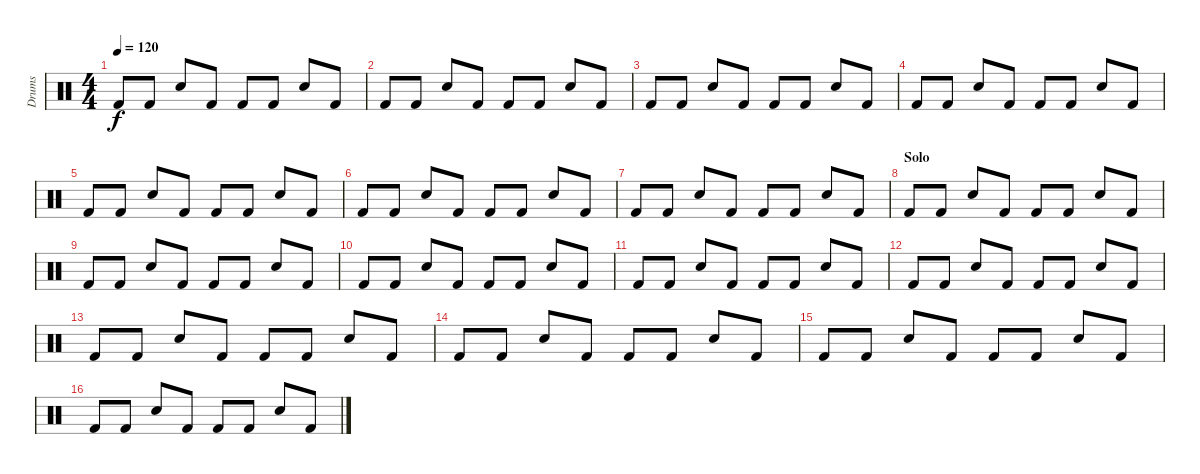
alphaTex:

\track ("Drums" "Drums") {instrument percussion}
\staff {score}
\articulation defaults
\ts (4 4)
\tempo 120
\clef neutral
\ks c "Kick (hit) 2".8{dy f} "Kick (hit) 2".8 "Snare (hit) 2".8 "Kick (hit) 2".8 "Kick (hit) 2".8 "Kick (hit) 2".8 "Snare (hit) 2".8 "Kick (hit) 2".8
|
"Kick (hit) 2".8 "Kick (hit) 2".8 "Snare (hit) 2".8 "Kick (hit) 2".8 "Kick (hit) 2".8 "Kick (hit) 2".8 "Snare (hit) 2".8 "Kick (hit) 2".8 |
"Kick (hit) 2".8 "Kick (hit) 2".8 "Snare (hit) 2".8 "Kick (hit) 2".8 "Kick (hit) 2".8 "Kick (hit) 2".8 "Snare (hit) 2".8 "Kick (hit) 2".8 |
"Kick (hit) 2".8 "Kick (hit) 2".8 "Snare (hit) 2".8 "Kick (hit) 2".8 "Kick (hit) 2".8 "Kick (hit) 2".8 "Snare (hit) 2".8 "Kick (hit) 2".8 |
"Kick (hit) 2".8 "Kick (hit) 2".8 "Snare (hit) 2".8 "Kick (hit) 2".8 "Kick (hit) 2".8 "Kick (hit) 2".8 "Snare (hit) 2".8 "Kick (hit) 2".8 |
"Kick (hit) 2".8 "Kick (hit) 2".8 "Snare (hit) 2".8 "Kick (hit) 2".8 "Kick (hit) 2".8 "Kick (hit) 2".8 "Snare (hit) 2".8 "Kick (hit) 2".8 |
"Kick (hit) 2".8 "Kick (hit) 2".8 "Snare (hit) 2".8 "Kick (hit) 2".8 "Kick (hit) 2".8 "Kick (hit) 2".8 "Snare (hit) 2".8 "Kick (hit) 2".8 |
\section ("" "Solo")
"Kick (hit) 2".8 "Kick (hit) 2".8 "Snare (hit) 2".8 "Kick (hit) 2".8 "Kick (hit) 2".8 "Kick (hit) 2".8 "Snare (hit) 2".8 "Kick (hit) 2".8 |
"Kick (hit) 2".8 "Kick (hit) 2".8 "Snare (hit) 2".8 "Kick (hit) 2".8 "Kick (hit) 2".8 "Kick (hit) 2".8 "Snare (hit) 2".8 "Kick (hit) 2".8 |
"Kick (hit) 2".8 "Kick (hit) 2".8 "Snare (hit) 2".8 "Kick (hit) 2".8 "Kick (hit) 2".8 "Kick (hit) 2".8 "Snare (hit) 2".8 "Kick (hit) 2".8 |
"Kick (hit) 2".8 "Kick (hit) 2".8 "Snare (hit) 2".8 "Kick (hit) 2".8 "Kick (hit) 2".8 "Kick (hit) 2".8 "Snare (hit) 2".8 "Kick (hit) 2".8 |
"Kick (hit) 2".8 "Kick (hit) 2".8 "Snare (hit) 2".8 "Kick (hit) 2".8 "Kick (hit) 2".8 "Kick (hit) 2".8 "Snare (hit) 2".8 "Kick (hit) 2".8 |
"Kick (hit) 2".8 "Kick (hit) 2".8 "Snare (hit) 2".8 "Kick (hit) 2".8 "Kick (hit) 2".8 "Kick (hit) 2".8 "Snare (hit) 2".8 "Kick (hit) 2".8 |
"Kick (hit) 2".8 "Kick (hit) 2".8 "Snare (hit) 2".8 "Kick (hit) 2".8 "Kick (hit) 2".8 "Kick (hit) 2".8 "Snare (hit) 2".8 "Kick (hit) 2".8 |
"Kick (hit) 2".8 "Kick (hit) 2".8 "Snare (hit) 2".8 "Kick (hit) 2".8 "Kick (hit) 2".8 "Kick (hit) 2".8 "Snare (hit) 2".8 "Kick (hit) 2".8 |
"Kick (hit) 2".8 "Kick (hit) 2".8 "Snare (hit) 2".8 "Kick (hit) 2".8 "Kick (hit) 2".8 "Kick (hit) 2".8 "Snare (hit) 2".8 "Kick (hit) 2".8
